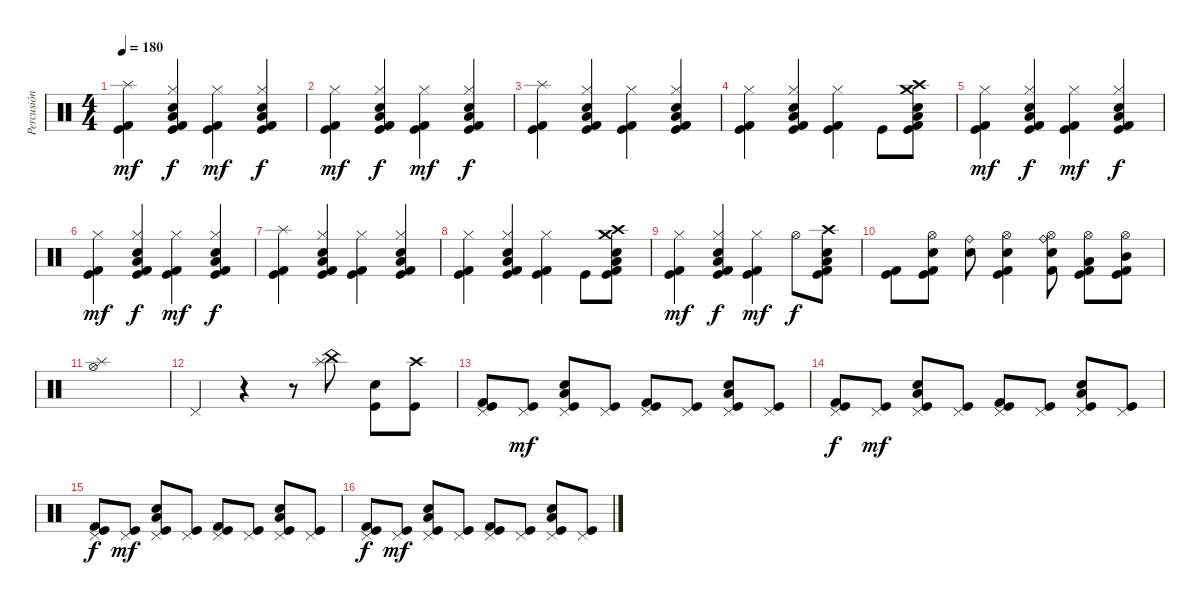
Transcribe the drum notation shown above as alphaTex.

\track ("Percusión" "Percusión") {instrument percussion}
\staff {score}
\articulation defaults
\ts (4 4)
\tempo 180
\clef neutral
\ks c
("Splash (hit)" "Kick (hit) 2" "Kick (hit)").4{dy mf} ("Hi-Hat (closed)" "Electric Snare (hit)" "Low Tom (hit)" "Kick (hit) 2" "Kick (hit)").4{dy f} ("Hi-Hat (closed)" "Kick (hit) 2" "Kick (hit)").4{dy mf} ("Hi-Hat (closed)" "Electric Snare (hit)" "Low Tom (hit)" "Kick (hit) 2" "Kick (hit)").4{dy f} |
("Hi-Hat (closed)" "Kick (hit) 2" "Kick (hit)").4{dy mf} ("Hi-Hat (closed)" "Electric Snare (hit)" "Low Tom (hit)" "Kick (hit) 2" "Kick (hit)").4{dy f} ("Hi-Hat (closed)" "Kick (hit) 2" "Kick (hit)").4{dy mf} ("Hi-Hat (closed)" "Electric Snare (hit)" "Low Tom (hit)" "Kick (hit) 2" "Kick (hit)").4{dy f} |
("Splash (hit)" "Kick (hit) 2" "Kick (hit)").4 ("Hi-Hat (closed)" "Electric Snare (hit)" "Low Tom (hit)" "Kick (hit) 2" "Kick (hit)").4 ("Hi-Hat (closed)" "Kick (hit) 2" "Kick (hit)").4 ("Hi-Hat (closed)" "Electric Snare (hit)" "Low Tom (hit)" "Kick (hit) 2" "Kick (hit)").4 |
("Hi-Hat (closed)" "Kick (hit) 2" "Kick (hit)").4 ("Hi-Hat (closed)" "Electric Snare (hit)" "Low Tom (hit)" "Kick (hit) 2" "Kick (hit)").4 ("Hi-Hat (closed)" "Kick (hit) 2" "Kick (hit)").4 "Kick (hit)".8 ("Crash high (hit)" "Electric Snare (hit)" "Low Tom (hit)" "Crash medium (hit)" "Kick (hit) 2" "Kick (hit)").8 |
("Hi-Hat (closed)" "Kick (hit) 2" "Kick (hit)").4{dy mf} ("Hi-Hat (closed)" "Electric Snare (hit)" "Low Tom (hit)" "Kick (hit) 2" "Kick (hit)").4{dy f} ("Hi-Hat (closed)" "Kick (hit) 2" "Kick (hit)").4{dy mf} ("Hi-Hat (closed)" "Electric Snare (hit)" "Low Tom (hit)" "Kick (hit) 2" "Kick (hit)").4{dy f} |
("Hi-Hat (closed)" "Kick (hit) 2" "Kick (hit)").4{dy mf} ("Hi-Hat (closed)" "Electric Snare (hit)" "Low Tom (hit)" "Kick (hit) 2" "Kick (hit)").4{dy f} ("Hi-Hat (closed)" "Kick (hit) 2" "Kick (hit)").4{dy mf} ("Hi-Hat (closed)" "Electric Snare (hit)" "Low Tom (hit)" "Kick (hit) 2" "Kick (hit)").4{dy f} |
("Splash (hit)" "Kick (hit) 2" "Kick (hit)").4 ("Hi-Hat (closed)" "Electric Snare (hit)" "Low Tom (hit)" "Kick (hit) 2" "Kick (hit)").4 ("Hi-Hat (closed)" "Kick (hit) 2" "Kick (hit)").4 ("Hi-Hat (closed)" "Electric Snare (hit)" "Low Tom (hit)" "Kick (hit) 2" "Kick (hit)").4 |
("Hi-Hat (closed)" "Kick (hit) 2" "Kick (hit)").4 ("Hi-Hat (closed)" "Electric Snare (hit)" "Low Tom (hit)" "Kick (hit) 2" "Kick (hit)").4 ("Hi-Hat (closed)" "Kick (hit) 2" "Kick (hit)").4 "Kick (hit)".8 ("Crash high (hit)" "Electric Snare (hit)" "Low Tom (hit)" "Crash medium (hit)" "Kick (hit) 2" "Kick (hit)").8 |
("Hi-Hat (closed)" "Kick (hit) 2" "Kick (hit)").4{dy mf} ("Hi-Hat (closed)" "Electric Snare (hit)" "Low Tom (hit)" "Kick (hit) 2" "Kick (hit)").4{dy f} ("Hi-Hat (closed)" "Kick (hit) 2" "Kick (hit)").4{dy mf} "Hi-Hat (open)".8{dy f} ("Crash high (hit)" "Electric Snare (hit)" "Low Tom (hit)" "Kick (hit) 2" "Kick (hit)").8 |
("Kick (hit) 2" "Kick (hit)").8 ("Electric Snare (hit)" "Hi-Hat (open)" "Kick (hit) 2" "Kick (hit)").8 ("Electric Snare (hit)" "Ride (bell)").8 ("Electric Snare (hit)" "Hi-Hat (open)" "Kick (hit) 2" "Kick (hit)").4 ("Electric Snare (hit)" "Hi-Hat (open)" "Kick (hit) 2" "Ride (bell)").8 ("Low Tom (hit)" "Hi-Hat (open)" "Kick (hit) 2" "Kick (hit)").8 ("Mid Tom (hit)" "Hi-Hat (open)" "Kick (hit) 2" "Kick (hit)").8 |
("Hi-Hat (open)" "Splash (hit)").1 |
"Pedal Hi-Hat (hit)".4 r.4 r.8 ("Splash (hit)" "China (hit)").8 ("Electric Snare (hit)" "Kick (hit)").8 ("Crash high (hit)" "Kick (hit)").8 |
("Pedal Hi-Hat (hit)" "Kick (hit) 2" "Kick (hit)").8 ("Pedal Hi-Hat (hit)" "Kick (hit)").8{dy mf} ("Pedal Hi-Hat (hit)" "Electric Snare (hit)" "Low Tom (hit)" "Kick (hit)").8 ("Pedal Hi-Hat (hit)" "Kick (hit)").8 ("Pedal Hi-Hat (hit)" "Kick (hit) 2" "Kick (hit)").8 ("Pedal Hi-Hat (hit)" "Kick (hit)").8 ("Pedal Hi-Hat (hit)" "Electric Snare (hit)" "Low Tom (hit)" "Kick (hit)").8 ("Pedal Hi-Hat (hit)" "Kick (hit)").8 |
("Pedal Hi-Hat (hit)" "Kick (hit) 2" "Kick (hit)").8{dy f} ("Pedal Hi-Hat (hit)" "Kick (hit)").8{dy mf} ("Pedal Hi-Hat (hit)" "Electric Snare (hit)" "Low Tom (hit)" "Kick (hit)").8 ("Pedal Hi-Hat (hit)" "Kick (hit)").8 ("Pedal Hi-Hat (hit)" "Kick (hit) 2" "Kick (hit)").8 ("Pedal Hi-Hat (hit)" "Kick (hit)").8 ("Pedal Hi-Hat (hit)" "Electric Snare (hit)" "Low Tom (hit)" "Kick (hit)").8 ("Pedal Hi-Hat (hit)" "Kick (hit)").8 |
("Pedal Hi-Hat (hit)" "Kick (hit) 2" "Kick (hit)").8{dy f} ("Pedal Hi-Hat (hit)" "Kick (hit)").8{dy mf} ("Pedal Hi-Hat (hit)" "Electric Snare (hit)" "Low Tom (hit)" "Kick (hit)").8 ("Pedal Hi-Hat (hit)" "Kick (hit)").8 ("Pedal Hi-Hat (hit)" "Kick (hit) 2" "Kick (hit)").8 ("Pedal Hi-Hat (hit)" "Kick (hit)").8 ("Pedal Hi-Hat (hit)" "Electric Snare (hit)" "Low Tom (hit)" "Kick (hit)").8 ("Pedal Hi-Hat (hit)" "Kick (hit)").8 |
("Pedal Hi-Hat (hit)" "Kick (hit) 2" "Kick (hit)").8{dy f} ("Pedal Hi-Hat (hit)" "Kick (hit)").8{dy mf} ("Pedal Hi-Hat (hit)" "Electric Snare (hit)" "Low Tom (hit)" "Kick (hit)").8 ("Pedal Hi-Hat (hit)" "Kick (hit)").8 ("Pedal Hi-Hat (hit)" "Kick (hit) 2" "Kick (hit)").8 ("Pedal Hi-Hat (hit)" "Kick (hit)").8 ("Pedal Hi-Hat (hit)" "Electric Snare (hit)" "Low Tom (hit)" "Kick (hit)").8 ("Pedal Hi-Hat (hit)" "Kick (hit)").8
